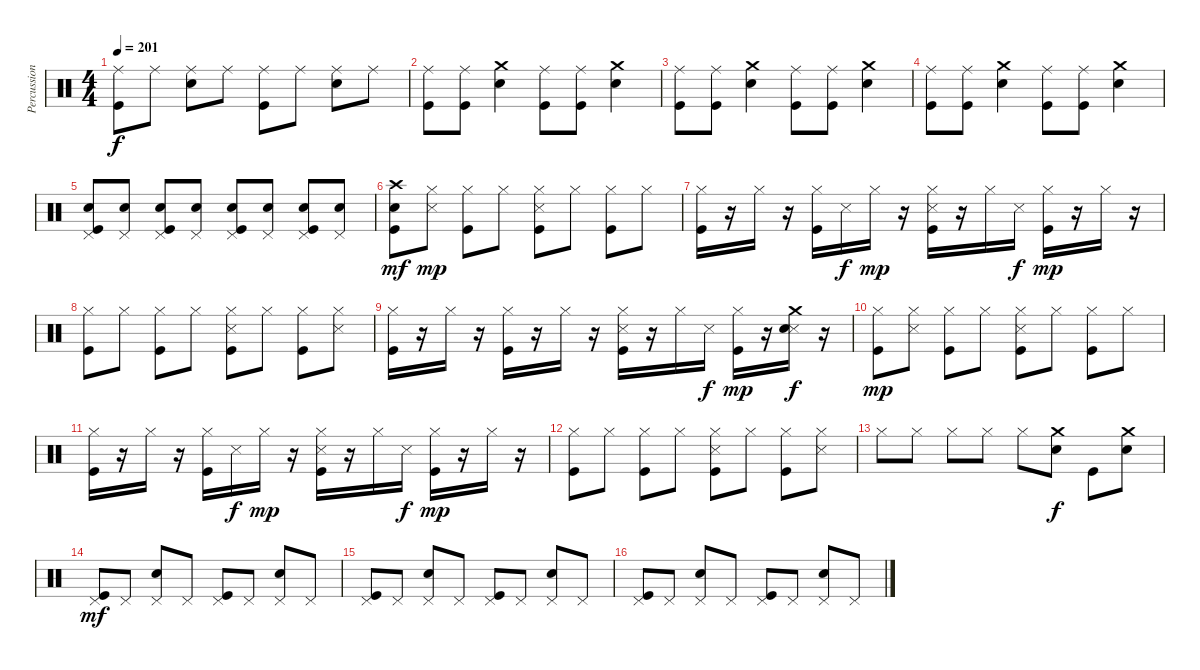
\track ("Percussion" "Percussion") {instrument percussion}
\staff {score}
\articulation defaults
\ts (4 4)
\tempo 201
\clef neutral
\ks c
("Ride (middle)" "Kick (hit)").8{dy f} "Ride (middle)".8 ("Ride (middle)" "Electric Snare (hit)").8 "Ride (middle)".8 ("Ride (middle)" "Kick (hit)").8 "Ride (middle)".8 ("Ride (middle)" "Electric Snare (hit)").8 "Ride (middle)".8 |
("Ride (middle)" "Kick (hit)").8 ("Ride (middle)" "Kick (hit)").8 ("Crash medium (hit)" "Electric Snare (hit)").4 ("Ride (middle)" "Kick (hit)").8 ("Ride (middle)" "Kick (hit)").8 ("Crash medium (hit)" "Electric Snare (hit)").4 |
("Ride (middle)" "Kick (hit)").8 ("Ride (middle)" "Kick (hit)").8 ("Crash medium (hit)" "Electric Snare (hit)").4 ("Ride (middle)" "Kick (hit)").8 ("Ride (middle)" "Kick (hit)").8 ("Crash medium (hit)" "Electric Snare (hit)").4 |
("Ride (middle)" "Kick (hit)").8 ("Ride (middle)" "Kick (hit)").8 ("Crash medium (hit)" "Electric Snare (hit)").4 ("Ride (middle)" "Kick (hit)").8 ("Ride (middle)" "Kick (hit)").8 ("Crash medium (hit)" "Electric Snare (hit)").4 |
("Pedal Hi-Hat (hit)" "Electric Snare (hit)" "Kick (hit)").8 ("Pedal Hi-Hat (hit)" "Electric Snare (hit)").8 ("Pedal Hi-Hat (hit)" "Electric Snare (hit)" "Kick (hit)").8 ("Pedal Hi-Hat (hit)" "Electric Snare (hit)").8 ("Pedal Hi-Hat (hit)" "Electric Snare (hit)" "Kick (hit)").8 ("Pedal Hi-Hat (hit)" "Electric Snare (hit)").8 ("Pedal Hi-Hat (hit)" "Electric Snare (hit)" "Kick (hit)").8 ("Pedal Hi-Hat (hit)" "Electric Snare (hit)").8 |
("Crash high (hit)" "Electric Snare (hit)" "Kick (hit)").8{dy mf} ("Snare (side stick) 3" "Hi-Hat (closed)").8{dy mp} ("Hi-Hat (closed)" "Kick (hit)").8 "Hi-Hat (closed)".8 ("Snare (side stick) 3" "Hi-Hat (closed)" "Kick (hit)").8 "Hi-Hat (closed)".8 ("Hi-Hat (closed)" "Kick (hit)").8 "Hi-Hat (closed)".8 |
("Hi-Hat (closed)" "Kick (hit)").16 r.16 "Hi-Hat (closed)".16 r.16 ("Hi-Hat (closed)" "Kick (hit)").16 "Snare (side stick) 3".16{dy f} "Hi-Hat (closed)".16{dy mp} r.16 ("Snare (side stick) 3" "Hi-Hat (closed)" "Kick (hit)").16 r.16 "Hi-Hat (closed)".16 "Snare (side stick) 3".16{dy f} ("Hi-Hat (closed)" "Kick (hit)").16{dy mp} r.16 "Hi-Hat (closed)".16 r.16 |
("Hi-Hat (closed)" "Kick (hit)").8 "Hi-Hat (closed)".8 ("Hi-Hat (closed)" "Kick (hit)").8 "Hi-Hat (closed)".8 ("Snare (side stick) 3" "Hi-Hat (closed)" "Kick (hit)").8 "Hi-Hat (closed)".8 ("Hi-Hat (closed)" "Kick (hit)").8 ("Snare (side stick) 3" "Hi-Hat (closed)").8 |
("Hi-Hat (closed)" "Kick (hit)").16 r.16 "Hi-Hat (closed)".16 r.16 ("Hi-Hat (closed)" "Kick (hit)").16 r.16 "Hi-Hat (closed)".16 r.16 ("Snare (side stick) 3" "Hi-Hat (closed)" "Kick (hit)").16 r.16 "Hi-Hat (closed)".16 "Snare (side stick) 3".16{dy f} ("Hi-Hat (closed)" "Kick (hit)").16{dy mp} r.16 ("Crash medium (hit)" "Snare (side stick) 3" "Electric Snare (hit)").16{dy f} r.16 |
("Hi-Hat (closed)" "Kick (hit)").8{dy mp} ("Snare (side stick) 3" "Hi-Hat (closed)").8 ("Hi-Hat (closed)" "Kick (hit)").8 "Hi-Hat (closed)".8 ("Snare (side stick) 3" "Hi-Hat (closed)" "Kick (hit)").8 "Hi-Hat (closed)".8 ("Hi-Hat (closed)" "Kick (hit)").8 "Hi-Hat (closed)".8 |
("Hi-Hat (closed)" "Kick (hit)").16 r.16 "Hi-Hat (closed)".16 r.16 ("Hi-Hat (closed)" "Kick (hit)").16 "Snare (side stick) 3".16{dy f} "Hi-Hat (closed)".16{dy mp} r.16 ("Snare (side stick) 3" "Hi-Hat (closed)" "Kick (hit)").16 r.16 "Hi-Hat (closed)".16 "Snare (side stick) 3".16{dy f} ("Hi-Hat (closed)" "Kick (hit)").16{dy mp} r.16 "Hi-Hat (closed)".16 r.16 |
("Hi-Hat (closed)" "Kick (hit)").8 "Hi-Hat (closed)".8 ("Hi-Hat (closed)" "Kick (hit)").8 "Hi-Hat (closed)".8 ("Snare (side stick) 3" "Hi-Hat (closed)" "Kick (hit)").8 "Hi-Hat (closed)".8 ("Hi-Hat (closed)" "Kick (hit)").8 ("Snare (side stick) 3" "Hi-Hat (closed)").8 |
"Hi-Hat (closed)".8 "Hi-Hat (closed)".8 "Hi-Hat (closed)".8 "Hi-Hat (closed)".8 "Hi-Hat (closed)".8 ("Crash medium (hit)" "Electric Snare (hit)").8{dy f} "Kick (hit)".8 ("Crash medium (hit)" "Electric Snare (hit)").8 |
("Pedal Hi-Hat (hit)" "Kick (hit)").8{dy mf} "Pedal Hi-Hat (hit)".8 ("Pedal Hi-Hat (hit)" "Electric Snare (hit)").8 "Pedal Hi-Hat (hit)".8 ("Pedal Hi-Hat (hit)" "Kick (hit)").8 "Pedal Hi-Hat (hit)".8 ("Pedal Hi-Hat (hit)" "Electric Snare (hit)").8 "Pedal Hi-Hat (hit)".8 |
("Pedal Hi-Hat (hit)" "Kick (hit)").8 "Pedal Hi-Hat (hit)".8 ("Pedal Hi-Hat (hit)" "Electric Snare (hit)").8 "Pedal Hi-Hat (hit)".8 ("Pedal Hi-Hat (hit)" "Kick (hit)").8 "Pedal Hi-Hat (hit)".8 ("Pedal Hi-Hat (hit)" "Electric Snare (hit)").8 "Pedal Hi-Hat (hit)".8 |
("Pedal Hi-Hat (hit)" "Kick (hit)").8 "Pedal Hi-Hat (hit)".8 ("Pedal Hi-Hat (hit)" "Electric Snare (hit)").8 "Pedal Hi-Hat (hit)".8 ("Pedal Hi-Hat (hit)" "Kick (hit)").8 "Pedal Hi-Hat (hit)".8 ("Pedal Hi-Hat (hit)" "Electric Snare (hit)").8 "Pedal Hi-Hat (hit)".8
